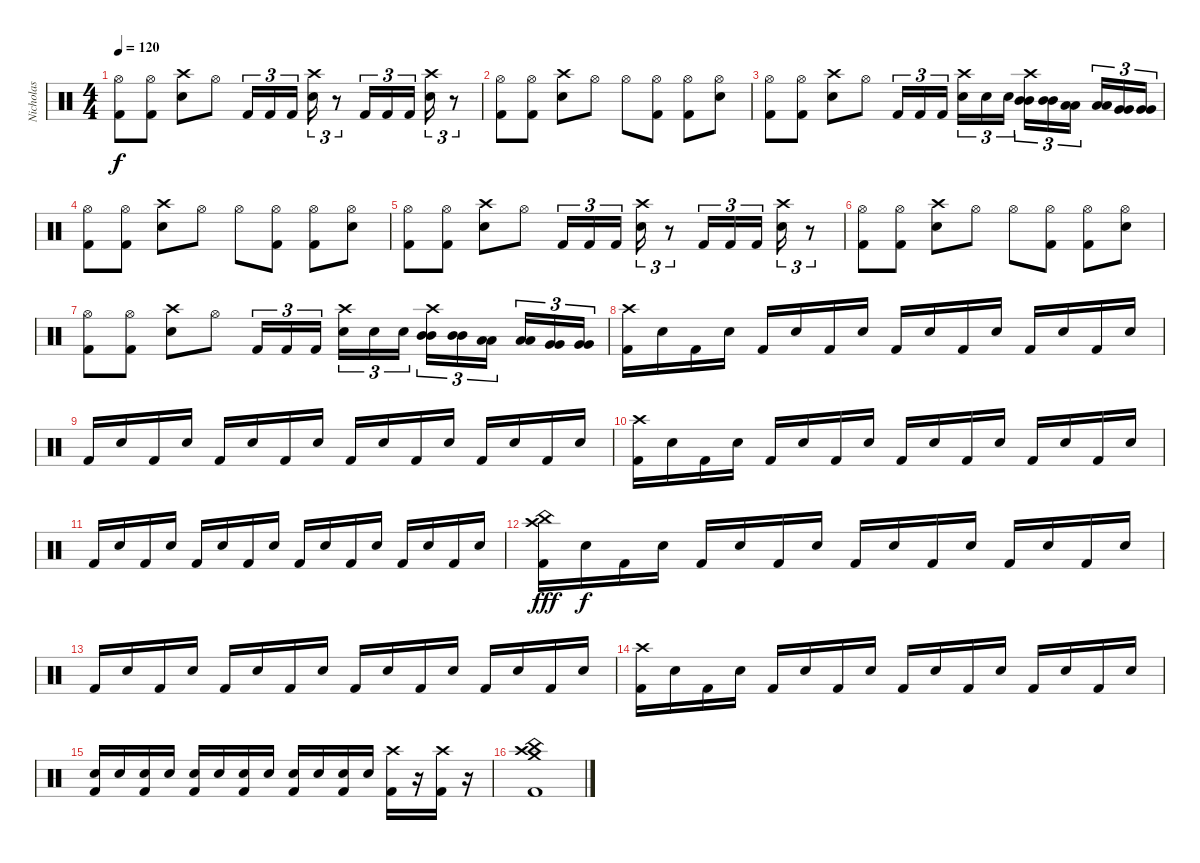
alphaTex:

\track ("Nicholas" "Nicholas") {instrument percussion}
\staff {score}
\articulation defaults
\ts (4 4)
\tempo 120
\clef neutral
\ks c
("Hi-Hat (open)" "Kick (hit) 2").8{dy f} ("Hi-Hat (open)" "Kick (hit) 2").8 ("Crash high (hit)" "Electric Snare (hit)").8 "Hi-Hat (open)".8 "Kick (hit) 2".16{tu (3 2)} "Kick (hit) 2".16{tu (3 2)} "Kick (hit) 2".16{tu (3 2)} ("Crash high (hit)" "Electric Snare (hit)").16{tu (3 2)} r.8{tu (3 2)} "Kick (hit) 2".16{tu (3 2)} "Kick (hit) 2".16{tu (3 2)} "Kick (hit) 2".16{tu (3 2)} ("Crash high (hit)" "Electric Snare (hit)").16{tu (3 2)} r.8{tu (3 2)} |
("Hi-Hat (open)" "Kick (hit) 2").8 ("Hi-Hat (open)" "Kick (hit) 2").8 ("Crash high (hit)" "Electric Snare (hit)").8 "Hi-Hat (open)".8 "Hi-Hat (open)".8 ("Hi-Hat (open)" "Kick (hit) 2").8 ("Hi-Hat (open)" "Kick (hit) 2").8 ("Hi-Hat (open)" "Electric Snare (hit)").8 |
("Hi-Hat (open)" "Kick (hit) 2").8 ("Hi-Hat (open)" "Kick (hit) 2").8 ("Crash high (hit)" "Electric Snare (hit)").8 "Hi-Hat (open)".8 "Kick (hit) 2".16{tu (3 2)} "Kick (hit) 2".16{tu (3 2)} "Kick (hit) 2".16{tu (3 2)} ("Crash high (hit)" "Electric Snare (hit)").16{tu (3 2)} "Electric Snare (hit)".16{tu (3 2)} "Electric Snare (hit)".16{tu (3 2)} ("Crash high (hit)" "Mid Tom (hit)" "Mid Tom (hit)").16{tu (3 2)} ("Mid Tom (hit)" "Mid Tom (hit)").16{tu (3 2)} ("Low Tom (hit)" "Low Tom (hit)").16{tu (3 2)} ("Low Tom (hit)" "Low Tom (hit)").16{tu (3 2)} ("Very Low Tom (hit)" "Very Low Tom (hit)").16{tu (3 2)} ("Very Low Tom (hit)" "Very Low Tom (hit)").16{tu (3 2)} |
("Hi-Hat (open)" "Kick (hit) 2").8 ("Hi-Hat (open)" "Kick (hit) 2").8 ("Crash high (hit)" "Electric Snare (hit)").8 "Hi-Hat (open)".8 "Hi-Hat (open)".8 ("Hi-Hat (open)" "Kick (hit) 2").8 ("Hi-Hat (open)" "Kick (hit) 2").8 ("Hi-Hat (open)" "Electric Snare (hit)").8 |
("Hi-Hat (open)" "Kick (hit) 2").8 ("Hi-Hat (open)" "Kick (hit) 2").8 ("Crash high (hit)" "Electric Snare (hit)").8 "Hi-Hat (open)".8 "Kick (hit) 2".16{tu (3 2)} "Kick (hit) 2".16{tu (3 2)} "Kick (hit) 2".16{tu (3 2)} ("Crash high (hit)" "Electric Snare (hit)").16{tu (3 2)} r.8{tu (3 2)} "Kick (hit) 2".16{tu (3 2)} "Kick (hit) 2".16{tu (3 2)} "Kick (hit) 2".16{tu (3 2)} ("Crash high (hit)" "Electric Snare (hit)").16{tu (3 2)} r.8{tu (3 2)} |
("Hi-Hat (open)" "Kick (hit) 2").8 ("Hi-Hat (open)" "Kick (hit) 2").8 ("Crash high (hit)" "Electric Snare (hit)").8 "Hi-Hat (open)".8 "Hi-Hat (open)".8 ("Hi-Hat (open)" "Kick (hit) 2").8 ("Hi-Hat (open)" "Kick (hit) 2").8 ("Hi-Hat (open)" "Electric Snare (hit)").8 |
("Hi-Hat (open)" "Kick (hit) 2").8 ("Hi-Hat (open)" "Kick (hit) 2").8 ("Crash high (hit)" "Electric Snare (hit)").8 "Hi-Hat (open)".8 "Kick (hit) 2".16{tu (3 2)} "Kick (hit) 2".16{tu (3 2)} "Kick (hit) 2".16{tu (3 2)} ("Crash high (hit)" "Electric Snare (hit)").16{tu (3 2)} "Electric Snare (hit)".16{tu (3 2)} "Electric Snare (hit)".16{tu (3 2)} ("Crash high (hit)" "Mid Tom (hit)" "Mid Tom (hit)").16{tu (3 2)} ("Mid Tom (hit)" "Mid Tom (hit)").16{tu (3 2)} ("Low Tom (hit)" "Low Tom (hit)").16{tu (3 2)} ("Low Tom (hit)" "Low Tom (hit)").16{tu (3 2)} ("Very Low Tom (hit)" "Very Low Tom (hit)").16{tu (3 2)} ("Very Low Tom (hit)" "Very Low Tom (hit)").16{tu (3 2)} |
("Crash high (hit)" "Kick (hit) 2").16 "Electric Snare (hit)".16 "Kick (hit) 2".16 "Electric Snare (hit)".16 "Kick (hit) 2".16 "Electric Snare (hit)".16 "Kick (hit) 2".16 "Electric Snare (hit)".16 "Kick (hit) 2".16 "Electric Snare (hit)".16 "Kick (hit) 2".16 "Electric Snare (hit)".16 "Kick (hit) 2".16 "Electric Snare (hit)".16 "Kick (hit) 2".16 "Electric Snare (hit)".16 |
"Kick (hit) 2".16 "Electric Snare (hit)".16 "Kick (hit) 2".16 "Electric Snare (hit)".16 "Kick (hit) 2".16 "Electric Snare (hit)".16 "Kick (hit) 2".16 "Electric Snare (hit)".16 "Kick (hit) 2".16 "Electric Snare (hit)".16 "Kick (hit) 2".16 "Electric Snare (hit)".16 "Kick (hit) 2".16 "Electric Snare (hit)".16 "Kick (hit) 2".16 "Electric Snare (hit)".16 |
("Crash high (hit)" "Kick (hit) 2").16 "Electric Snare (hit)".16 "Kick (hit) 2".16 "Electric Snare (hit)".16 "Kick (hit) 2".16 "Electric Snare (hit)".16 "Kick (hit) 2".16 "Electric Snare (hit)".16 "Kick (hit) 2".16 "Electric Snare (hit)".16 "Kick (hit) 2".16 "Electric Snare (hit)".16 "Kick (hit) 2".16 "Electric Snare (hit)".16 "Kick (hit) 2".16 "Electric Snare (hit)".16 |
"Kick (hit) 2".16 "Electric Snare (hit)".16 "Kick (hit) 2".16 "Electric Snare (hit)".16 "Kick (hit) 2".16 "Electric Snare (hit)".16 "Kick (hit) 2".16 "Electric Snare (hit)".16 "Kick (hit) 2".16 "Electric Snare (hit)".16 "Kick (hit) 2".16 "Electric Snare (hit)".16 "Kick (hit) 2".16 "Electric Snare (hit)".16 "Kick (hit) 2".16 "Electric Snare (hit)".16 |
("China (hit)" "Crash high (hit)" "Kick (hit) 2").16{dy fff} "Electric Snare (hit)".16{dy f} "Kick (hit) 2".16 "Electric Snare (hit)".16 "Kick (hit) 2".16 "Electric Snare (hit)".16 "Kick (hit) 2".16 "Electric Snare (hit)".16 "Kick (hit) 2".16 "Electric Snare (hit)".16 "Kick (hit) 2".16 "Electric Snare (hit)".16 "Kick (hit) 2".16 "Electric Snare (hit)".16 "Kick (hit) 2".16 "Electric Snare (hit)".16 |
"Kick (hit) 2".16 "Electric Snare (hit)".16 "Kick (hit) 2".16 "Electric Snare (hit)".16 "Kick (hit) 2".16 "Electric Snare (hit)".16 "Kick (hit) 2".16 "Electric Snare (hit)".16 "Kick (hit) 2".16 "Electric Snare (hit)".16 "Kick (hit) 2".16 "Electric Snare (hit)".16 "Kick (hit) 2".16 "Electric Snare (hit)".16 "Kick (hit) 2".16 "Electric Snare (hit)".16 |
("Crash high (hit)" "Kick (hit) 2").16 "Electric Snare (hit)".16 "Kick (hit) 2".16 "Electric Snare (hit)".16 "Kick (hit) 2".16 "Electric Snare (hit)".16 "Kick (hit) 2".16 "Electric Snare (hit)".16 "Kick (hit) 2".16 "Electric Snare (hit)".16 "Kick (hit) 2".16 "Electric Snare (hit)".16 "Kick (hit) 2".16 "Electric Snare (hit)".16 "Kick (hit) 2".16 "Electric Snare (hit)".16 |
("Electric Snare (hit)" "Kick (hit) 2").16 "Electric Snare (hit)".16 ("Electric Snare (hit)" "Kick (hit) 2").16 "Electric Snare (hit)".16 ("Electric Snare (hit)" "Kick (hit) 2").16 "Electric Snare (hit)".16 ("Electric Snare (hit)" "Kick (hit) 2").16 "Electric Snare (hit)".16 ("Electric Snare (hit)" "Kick (hit) 2").16 "Electric Snare (hit)".16 ("Electric Snare (hit)" "Kick (hit) 2").16 "Electric Snare (hit)".16 ("Crash high (hit)" "Kick (hit) 2").16 r.16 ("Crash high (hit)" "Kick (hit) 2").16 r.16 |
("Crash high (hit)" "Crash medium (hit)" "China (hit)" "Kick (hit) 2").1
